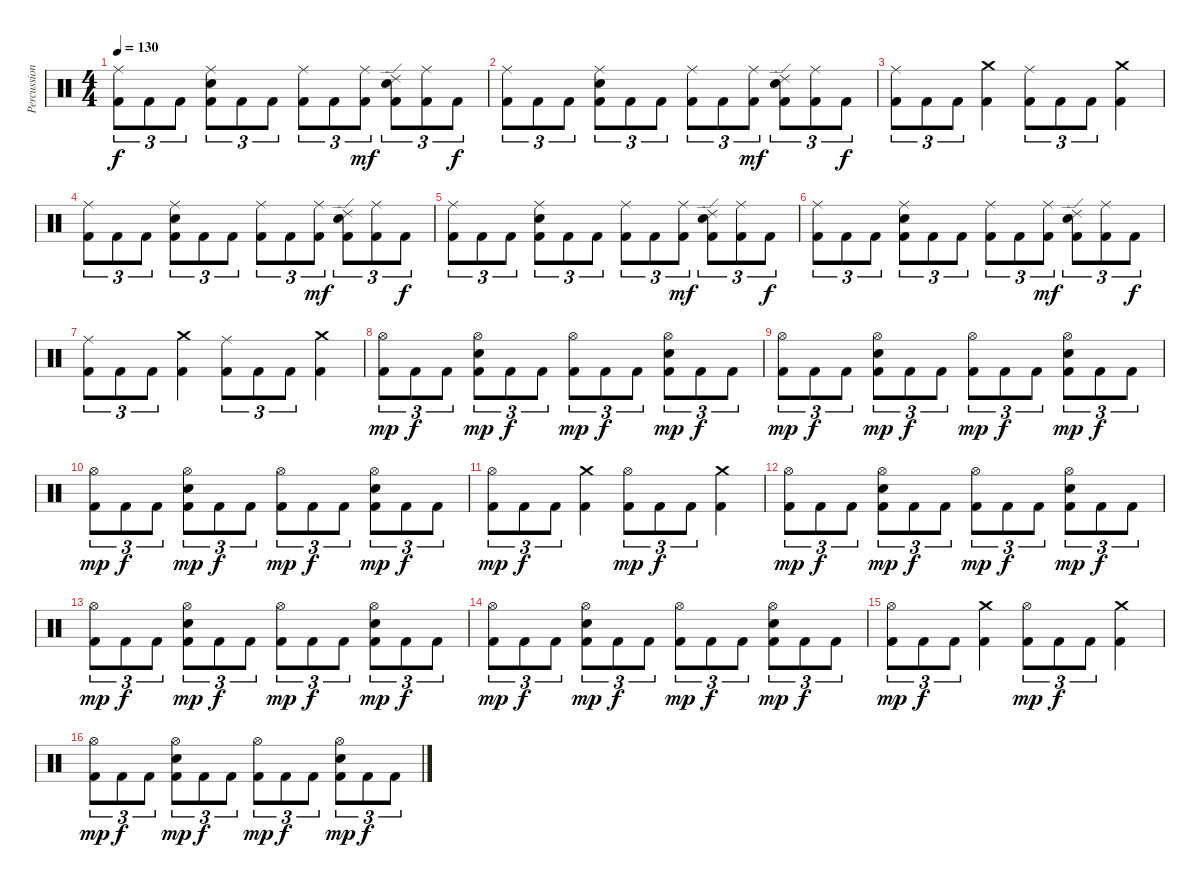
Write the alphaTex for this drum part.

\track ("Percussion" "Percussion") {instrument percussion}
\staff {score}
\articulation defaults
\ts (4 4)
\tempo 130
\clef neutral
\ks c
("Ride (middle)" "Kick (hit) 2").8{tu (3 2) dy f} "Kick (hit) 2".8{tu (3 2)} "Kick (hit) 2".8{tu (3 2)} ("Ride (middle)" "Snare (hit) 2" "Kick (hit) 2").8{tu (3 2)} "Kick (hit) 2".8{tu (3 2)} "Kick (hit) 2".8{tu (3 2)} ("Ride (middle)" "Kick (hit) 2").8{tu (3 2)} "Kick (hit) 2".8{tu (3 2)} ("Ride (middle)" "Kick (hit) 2").8{tu (3 2) dy mf} ("Ride (edge) 2" "Snare (hit) 2" "Kick (hit) 2").8{tu (3 2)} ("Ride (middle)" "Kick (hit) 2").8{tu (3 2)} "Kick (hit) 2".8{tu (3 2) dy f} |
("Ride (middle)" "Kick (hit) 2").8{tu (3 2)} "Kick (hit) 2".8{tu (3 2)} "Kick (hit) 2".8{tu (3 2)} ("Ride (middle)" "Snare (hit) 2" "Kick (hit) 2").8{tu (3 2)} "Kick (hit) 2".8{tu (3 2)} "Kick (hit) 2".8{tu (3 2)} ("Ride (middle)" "Kick (hit) 2").8{tu (3 2)} "Kick (hit) 2".8{tu (3 2)} ("Ride (middle)" "Kick (hit) 2").8{tu (3 2) dy mf} ("Ride (edge) 2" "Snare (hit) 2" "Kick (hit) 2").8{tu (3 2)} ("Ride (middle)" "Kick (hit) 2").8{tu (3 2)} "Kick (hit) 2".8{tu (3 2) dy f} |
("Ride (middle)" "Kick (hit) 2").8{tu (3 2)} "Kick (hit) 2".8{tu (3 2)} "Kick (hit) 2".8{tu (3 2)} ("Crash medium (hit)" "Kick (hit) 2").4 ("Ride (middle)" "Kick (hit) 2").8{tu (3 2)} "Kick (hit) 2".8{tu (3 2)} "Kick (hit) 2".8{tu (3 2)} ("Crash medium (hit)" "Kick (hit) 2").4 |
("Ride (middle)" "Kick (hit) 2").8{tu (3 2)} "Kick (hit) 2".8{tu (3 2)} "Kick (hit) 2".8{tu (3 2)} ("Ride (middle)" "Snare (hit) 2" "Kick (hit) 2").8{tu (3 2)} "Kick (hit) 2".8{tu (3 2)} "Kick (hit) 2".8{tu (3 2)} ("Ride (middle)" "Kick (hit) 2").8{tu (3 2)} "Kick (hit) 2".8{tu (3 2)} ("Ride (middle)" "Kick (hit) 2").8{tu (3 2) dy mf} ("Ride (edge) 2" "Snare (hit) 2" "Kick (hit) 2").8{tu (3 2)} ("Ride (middle)" "Kick (hit) 2").8{tu (3 2)} "Kick (hit) 2".8{tu (3 2) dy f} |
("Ride (middle)" "Kick (hit) 2").8{tu (3 2)} "Kick (hit) 2".8{tu (3 2)} "Kick (hit) 2".8{tu (3 2)} ("Ride (middle)" "Snare (hit) 2" "Kick (hit) 2").8{tu (3 2)} "Kick (hit) 2".8{tu (3 2)} "Kick (hit) 2".8{tu (3 2)} ("Ride (middle)" "Kick (hit) 2").8{tu (3 2)} "Kick (hit) 2".8{tu (3 2)} ("Ride (middle)" "Kick (hit) 2").8{tu (3 2) dy mf} ("Ride (edge) 2" "Snare (hit) 2" "Kick (hit) 2").8{tu (3 2)} ("Ride (middle)" "Kick (hit) 2").8{tu (3 2)} "Kick (hit) 2".8{tu (3 2) dy f} |
("Ride (middle)" "Kick (hit) 2").8{tu (3 2)} "Kick (hit) 2".8{tu (3 2)} "Kick (hit) 2".8{tu (3 2)} ("Ride (middle)" "Snare (hit) 2" "Kick (hit) 2").8{tu (3 2)} "Kick (hit) 2".8{tu (3 2)} "Kick (hit) 2".8{tu (3 2)} ("Ride (middle)" "Kick (hit) 2").8{tu (3 2)} "Kick (hit) 2".8{tu (3 2)} ("Ride (middle)" "Kick (hit) 2").8{tu (3 2) dy mf} ("Ride (edge) 2" "Snare (hit) 2" "Kick (hit) 2").8{tu (3 2)} ("Ride (middle)" "Kick (hit) 2").8{tu (3 2)} "Kick (hit) 2".8{tu (3 2) dy f} |
("Ride (middle)" "Kick (hit) 2").8{tu (3 2)} "Kick (hit) 2".8{tu (3 2)} "Kick (hit) 2".8{tu (3 2)} ("Crash medium (hit)" "Kick (hit) 2").4 ("Ride (middle)" "Kick (hit) 2").8{tu (3 2)} "Kick (hit) 2".8{tu (3 2)} "Kick (hit) 2".8{tu (3 2)} ("Crash medium (hit)" "Kick (hit) 2").4 |
("Hi-Hat (open)" "Kick (hit) 2").8{tu (3 2) dy mp} "Kick (hit) 2".8{tu (3 2) dy f} "Kick (hit) 2".8{tu (3 2)} ("Hi-Hat (open)" "Snare (hit) 2" "Kick (hit) 2").8{tu (3 2) dy mp} "Kick (hit) 2".8{tu (3 2) dy f} "Kick (hit) 2".8{tu (3 2)} ("Hi-Hat (open)" "Kick (hit) 2").8{tu (3 2) dy mp} "Kick (hit) 2".8{tu (3 2) dy f} "Kick (hit) 2".8{tu (3 2)} ("Hi-Hat (open)" "Snare (hit) 2" "Kick (hit) 2").8{tu (3 2) dy mp} "Kick (hit) 2".8{tu (3 2) dy f} "Kick (hit) 2".8{tu (3 2)} |
("Hi-Hat (open)" "Kick (hit) 2").8{tu (3 2) dy mp} "Kick (hit) 2".8{tu (3 2) dy f} "Kick (hit) 2".8{tu (3 2)} ("Hi-Hat (open)" "Snare (hit) 2" "Kick (hit) 2").8{tu (3 2) dy mp} "Kick (hit) 2".8{tu (3 2) dy f} "Kick (hit) 2".8{tu (3 2)} ("Hi-Hat (open)" "Kick (hit) 2").8{tu (3 2) dy mp} "Kick (hit) 2".8{tu (3 2) dy f} "Kick (hit) 2".8{tu (3 2)} ("Hi-Hat (open)" "Snare (hit) 2" "Kick (hit) 2").8{tu (3 2) dy mp} "Kick (hit) 2".8{tu (3 2) dy f} "Kick (hit) 2".8{tu (3 2)} |
("Hi-Hat (open)" "Kick (hit) 2").8{tu (3 2) dy mp} "Kick (hit) 2".8{tu (3 2) dy f} "Kick (hit) 2".8{tu (3 2)} ("Hi-Hat (open)" "Snare (hit) 2" "Kick (hit) 2").8{tu (3 2) dy mp} "Kick (hit) 2".8{tu (3 2) dy f} "Kick (hit) 2".8{tu (3 2)} ("Hi-Hat (open)" "Kick (hit) 2").8{tu (3 2) dy mp} "Kick (hit) 2".8{tu (3 2) dy f} "Kick (hit) 2".8{tu (3 2)} ("Hi-Hat (open)" "Snare (hit) 2" "Kick (hit) 2").8{tu (3 2) dy mp} "Kick (hit) 2".8{tu (3 2) dy f} "Kick (hit) 2".8{tu (3 2)} |
("Hi-Hat (open)" "Kick (hit) 2").8{tu (3 2) dy mp} "Kick (hit) 2".8{tu (3 2) dy f} "Kick (hit) 2".8{tu (3 2)} ("Crash medium (hit)" "Kick (hit) 2").4 ("Hi-Hat (open)" "Kick (hit) 2").8{tu (3 2) dy mp} "Kick (hit) 2".8{tu (3 2) dy f} "Kick (hit) 2".8{tu (3 2)} ("Crash medium (hit)" "Kick (hit) 2").4 |
("Hi-Hat (open)" "Kick (hit) 2").8{tu (3 2) dy mp} "Kick (hit) 2".8{tu (3 2) dy f} "Kick (hit) 2".8{tu (3 2)} ("Hi-Hat (open)" "Snare (hit) 2" "Kick (hit) 2").8{tu (3 2) dy mp} "Kick (hit) 2".8{tu (3 2) dy f} "Kick (hit) 2".8{tu (3 2)} ("Hi-Hat (open)" "Kick (hit) 2").8{tu (3 2) dy mp} "Kick (hit) 2".8{tu (3 2) dy f} "Kick (hit) 2".8{tu (3 2)} ("Hi-Hat (open)" "Snare (hit) 2" "Kick (hit) 2").8{tu (3 2) dy mp} "Kick (hit) 2".8{tu (3 2) dy f} "Kick (hit) 2".8{tu (3 2)} |
("Hi-Hat (open)" "Kick (hit) 2").8{tu (3 2) dy mp} "Kick (hit) 2".8{tu (3 2) dy f} "Kick (hit) 2".8{tu (3 2)} ("Hi-Hat (open)" "Snare (hit) 2" "Kick (hit) 2").8{tu (3 2) dy mp} "Kick (hit) 2".8{tu (3 2) dy f} "Kick (hit) 2".8{tu (3 2)} ("Hi-Hat (open)" "Kick (hit) 2").8{tu (3 2) dy mp} "Kick (hit) 2".8{tu (3 2) dy f} "Kick (hit) 2".8{tu (3 2)} ("Hi-Hat (open)" "Snare (hit) 2" "Kick (hit) 2").8{tu (3 2) dy mp} "Kick (hit) 2".8{tu (3 2) dy f} "Kick (hit) 2".8{tu (3 2)} |
("Hi-Hat (open)" "Kick (hit) 2").8{tu (3 2) dy mp} "Kick (hit) 2".8{tu (3 2) dy f} "Kick (hit) 2".8{tu (3 2)} ("Hi-Hat (open)" "Snare (hit) 2" "Kick (hit) 2").8{tu (3 2) dy mp} "Kick (hit) 2".8{tu (3 2) dy f} "Kick (hit) 2".8{tu (3 2)} ("Hi-Hat (open)" "Kick (hit) 2").8{tu (3 2) dy mp} "Kick (hit) 2".8{tu (3 2) dy f} "Kick (hit) 2".8{tu (3 2)} ("Hi-Hat (open)" "Snare (hit) 2" "Kick (hit) 2").8{tu (3 2) dy mp} "Kick (hit) 2".8{tu (3 2) dy f} "Kick (hit) 2".8{tu (3 2)} |
("Hi-Hat (open)" "Kick (hit) 2").8{tu (3 2) dy mp} "Kick (hit) 2".8{tu (3 2) dy f} "Kick (hit) 2".8{tu (3 2)} ("Crash medium (hit)" "Kick (hit) 2").4 ("Hi-Hat (open)" "Kick (hit) 2").8{tu (3 2) dy mp} "Kick (hit) 2".8{tu (3 2) dy f} "Kick (hit) 2".8{tu (3 2)} ("Crash medium (hit)" "Kick (hit) 2").4 |
("Hi-Hat (open)" "Kick (hit) 2").8{tu (3 2) dy mp} "Kick (hit) 2".8{tu (3 2) dy f} "Kick (hit) 2".8{tu (3 2)} ("Hi-Hat (open)" "Snare (hit) 2" "Kick (hit) 2").8{tu (3 2) dy mp} "Kick (hit) 2".8{tu (3 2) dy f} "Kick (hit) 2".8{tu (3 2)} ("Hi-Hat (open)" "Kick (hit) 2").8{tu (3 2) dy mp} "Kick (hit) 2".8{tu (3 2) dy f} "Kick (hit) 2".8{tu (3 2)} ("Hi-Hat (open)" "Snare (hit) 2" "Kick (hit) 2").8{tu (3 2) dy mp} "Kick (hit) 2".8{tu (3 2) dy f} "Kick (hit) 2".8{tu (3 2)}
